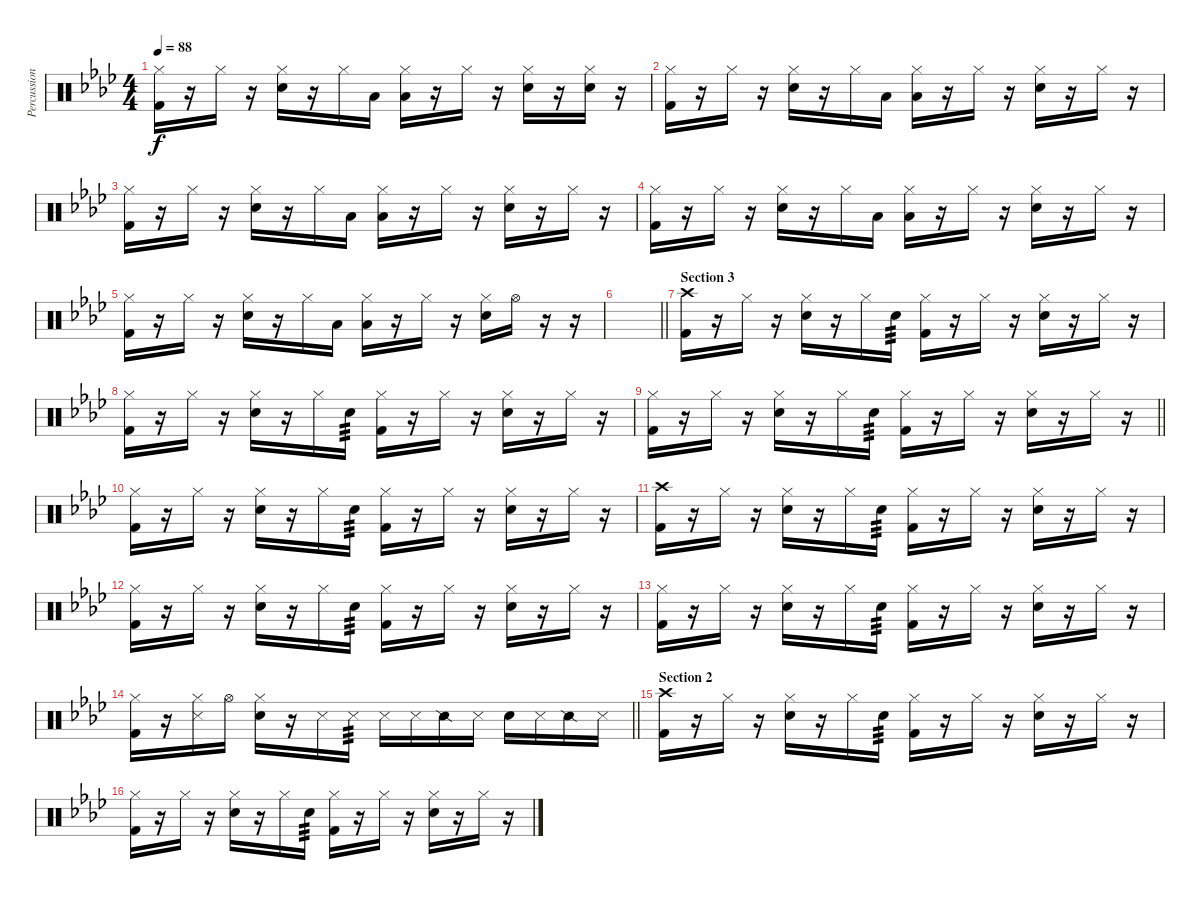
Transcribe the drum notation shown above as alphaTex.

\track ("Percussion" "Percussion") {instrument percussion}
\staff {score}
\articulation defaults
\ts (4 4)
\tempo 88
\clef neutral
\ks fminor
("Hi-Hat (closed)" "Kick (hit) 2").16{dy f} r.16 "Hi-Hat (closed)".16 r.16 ("Hi-Hat (closed)" "Snare (hit) 2").16 r.16 "Hi-Hat (closed)".16 "Low Tom (hit)".16 ("Hi-Hat (closed)" "Low Tom (hit)").16 r.16 "Hi-Hat (closed)".16 r.16 ("Hi-Hat (closed)" "Snare (hit) 2").16 r.16 ("Hi-Hat (closed)" "Snare (hit) 2").16 r.16 |
("Hi-Hat (closed)" "Kick (hit) 2").16 r.16 "Hi-Hat (closed)".16 r.16 ("Hi-Hat (closed)" "Snare (hit) 2").16 r.16 "Hi-Hat (closed)".16 "Low Tom (hit)".16 ("Hi-Hat (closed)" "Low Tom (hit)").16 r.16 "Hi-Hat (closed)".16 r.16 ("Hi-Hat (closed)" "Snare (hit) 2").16 r.16 "Hi-Hat (closed)".16 r.16 |
("Hi-Hat (closed)" "Kick (hit) 2").16 r.16 "Hi-Hat (closed)".16 r.16 ("Hi-Hat (closed)" "Snare (hit) 2").16 r.16 "Hi-Hat (closed)".16 "Low Tom (hit)".16 ("Hi-Hat (closed)" "Low Tom (hit)").16 r.16 "Hi-Hat (closed)".16 r.16 ("Hi-Hat (closed)" "Snare (hit) 2").16 r.16 "Hi-Hat (closed)".16 r.16 |
("Hi-Hat (closed)" "Kick (hit) 2").16 r.16 "Hi-Hat (closed)".16 r.16 ("Hi-Hat (closed)" "Snare (hit) 2").16 r.16 "Hi-Hat (closed)".16 "Low Tom (hit)".16 ("Hi-Hat (closed)" "Low Tom (hit)").16 r.16 "Hi-Hat (closed)".16 r.16 ("Hi-Hat (closed)" "Snare (hit) 2").16 r.16 "Hi-Hat (closed)".16 r.16 |
("Hi-Hat (closed)" "Kick (hit) 2").16 r.16 "Hi-Hat (closed)".16 r.16 ("Hi-Hat (closed)" "Snare (hit) 2").16 r.16 "Hi-Hat (closed)".16 "Low Tom (hit)".16 ("Hi-Hat (closed)" "Low Tom (hit)").16 r.16 "Hi-Hat (closed)".16 r.16 ("Hi-Hat (closed)" "Snare (hit) 2").16 "Hi-Hat (open)".16 r.16{volume 0} r.16 |
\barLineRight lightlight
|
\section ("" "Section 3")
("Crash high (hit)" "Kick (hit) 2").16{volume 16} r.16 "Hi-Hat (closed)".16 r.16 ("Hi-Hat (closed)" "Snare (hit) 2").16 r.16 "Hi-Hat (closed)".16 "Snare (hit) 2".16{tp 3} ("Hi-Hat (closed)" "Kick (hit) 2").16 r.16 "Hi-Hat (closed)".16 r.16 ("Hi-Hat (closed)" "Snare (hit) 2").16 r.16 "Hi-Hat (closed)".16 r.16 |
("Hi-Hat (closed)" "Kick (hit) 2").16 r.16 "Hi-Hat (closed)".16 r.16 ("Hi-Hat (closed)" "Snare (hit) 2").16 r.16 "Hi-Hat (closed)".16 "Snare (hit) 2".16{tp 3} ("Hi-Hat (closed)" "Kick (hit) 2").16 r.16 "Hi-Hat (closed)".16 r.16 ("Hi-Hat (closed)" "Snare (hit) 2").16 r.16 "Hi-Hat (closed)".16 r.16 |
\barLineRight lightlight
("Hi-Hat (closed)" "Kick (hit) 2").16 r.16 "Hi-Hat (closed)".16 r.16 ("Hi-Hat (closed)" "Snare (hit) 2").16 r.16 "Hi-Hat (closed)".16 "Snare (hit) 2".16{tp 3} ("Hi-Hat (closed)" "Kick (hit) 2").16 r.16 "Hi-Hat (closed)".16 r.16 ("Hi-Hat (closed)" "Snare (hit) 2").16 r.16 "Hi-Hat (closed)".16 r.16 |
("Hi-Hat (closed)" "Kick (hit) 2").16 r.16 "Hi-Hat (closed)".16 r.16 ("Hi-Hat (closed)" "Snare (hit) 2").16 r.16 "Hi-Hat (closed)".16 "Snare (hit) 2".16{tp 3} ("Hi-Hat (closed)" "Kick (hit) 2").16 r.16 "Hi-Hat (closed)".16 r.16 ("Hi-Hat (closed)" "Snare (hit) 2").16 r.16 "Hi-Hat (closed)".16 r.16 |
("Crash high (hit)" "Kick (hit) 2").16 r.16 "Hi-Hat (closed)".16 r.16 ("Hi-Hat (closed)" "Snare (hit) 2").16 r.16 "Hi-Hat (closed)".16 "Snare (hit) 2".16{tp 3} ("Hi-Hat (closed)" "Kick (hit) 2").16 r.16 "Hi-Hat (closed)".16 r.16 ("Hi-Hat (closed)" "Snare (hit) 2").16 r.16 "Hi-Hat (closed)".16 r.16 |
("Hi-Hat (closed)" "Kick (hit) 2").16 r.16 "Hi-Hat (closed)".16 r.16 ("Hi-Hat (closed)" "Snare (hit) 2").16 r.16 "Hi-Hat (closed)".16 "Snare (hit) 2".16{tp 3} ("Hi-Hat (closed)" "Kick (hit) 2").16 r.16 "Hi-Hat (closed)".16 r.16 ("Hi-Hat (closed)" "Snare (hit) 2").16 r.16 "Hi-Hat (closed)".16 r.16 |
("Hi-Hat (closed)" "Kick (hit) 2").16 r.16 "Hi-Hat (closed)".16 r.16 ("Hi-Hat (closed)" "Snare (hit) 2").16 r.16 "Hi-Hat (closed)".16 "Snare (hit) 2".16{tp 3} ("Hi-Hat (closed)" "Kick (hit) 2").16 r.16 "Hi-Hat (closed)".16 r.16 ("Hi-Hat (closed)" "Snare (hit) 2").16 r.16 "Hi-Hat (closed)".16 r.16 |
\barLineRight lightlight
("Hi-Hat (closed)" "Kick (hit) 2").16 r.16 ("Hi-Hat (closed)" "Snare (side stick) 3").16 "Hi-Hat (open)".16 ("Hi-Hat (closed)" "Snare (hit) 2").16 r.16 "Snare (side stick) 3".16 "Snare (side stick) 3".16{tp 3} "Snare (side stick) 3".16 "Snare (side stick) 3".16 "Snare (side stick) 2".16 "Snare (side stick) 3".16 "Snare (hit) 2".16 "Snare (side stick) 3".16 "Snare (side stick) 2".16 "Snare (side stick) 3".16 |
\section ("" "Section 2")
("Crash high (hit)" "Kick (hit) 2").16 r.16 "Hi-Hat (closed)".16 r.16 ("Hi-Hat (closed)" "Snare (hit) 2").16 r.16 "Hi-Hat (closed)".16 "Snare (hit) 2".16{tp 3} ("Hi-Hat (closed)" "Kick (hit) 2").16 r.16 "Hi-Hat (closed)".16 r.16 ("Hi-Hat (closed)" "Snare (hit) 2").16 r.16 "Hi-Hat (closed)".16 r.16 |
("Hi-Hat (closed)" "Kick (hit) 2").16 r.16 "Hi-Hat (closed)".16 r.16 ("Hi-Hat (closed)" "Snare (hit) 2").16 r.16 "Hi-Hat (closed)".16 "Snare (hit) 2".16{tp 3} ("Hi-Hat (closed)" "Kick (hit) 2").16 r.16 "Hi-Hat (closed)".16 r.16 ("Hi-Hat (closed)" "Snare (hit) 2").16 r.16 "Hi-Hat (closed)".16 r.16
